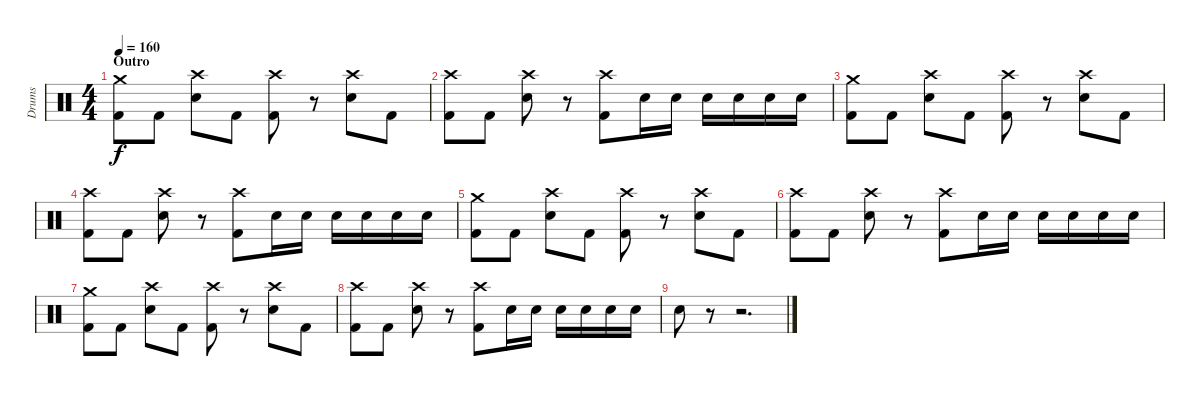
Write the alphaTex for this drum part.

\track ("Drums" "Drums") {instrument percussion}
\staff {score}
\articulation defaults
\ts (4 4)
\section ("" "Outro")
\tempo 160
\clef neutral
\ks c
("Crash medium (hit)" "Kick (hit) 2").8{dy f} "Kick (hit) 2".8 ("Crash high (hit)" "Electric Snare (hit)").8 "Kick (hit) 2".8 ("Crash high (hit)" "Kick (hit) 2").8 r.8 ("Crash high (hit)" "Electric Snare (hit)").8 "Kick (hit) 2".8 |
("Crash high (hit)" "Kick (hit) 2").8 "Kick (hit) 2".8 ("Crash high (hit)" "Electric Snare (hit)").8 r.8 ("Crash high (hit)" "Kick (hit) 2").8 "Electric Snare (hit)".16 "Electric Snare (hit)".16 "Electric Snare (hit)".16 "Electric Snare (hit)".16 "Electric Snare (hit)".16 "Electric Snare (hit)".16 |
("Crash medium (hit)" "Kick (hit) 2").8 "Kick (hit) 2".8 ("Crash high (hit)" "Electric Snare (hit)").8 "Kick (hit) 2".8 ("Crash high (hit)" "Kick (hit) 2").8 r.8 ("Crash high (hit)" "Electric Snare (hit)").8 "Kick (hit) 2".8 |
("Crash high (hit)" "Kick (hit) 2").8 "Kick (hit) 2".8 ("Crash high (hit)" "Electric Snare (hit)").8 r.8 ("Crash high (hit)" "Kick (hit) 2").8 "Electric Snare (hit)".16 "Electric Snare (hit)".16 "Electric Snare (hit)".16 "Electric Snare (hit)".16 "Electric Snare (hit)".16 "Electric Snare (hit)".16 |
("Crash medium (hit)" "Kick (hit) 2").8 "Kick (hit) 2".8 ("Crash high (hit)" "Electric Snare (hit)").8 "Kick (hit) 2".8 ("Crash high (hit)" "Kick (hit) 2").8 r.8 ("Crash high (hit)" "Electric Snare (hit)").8 "Kick (hit) 2".8 |
("Crash high (hit)" "Kick (hit) 2").8 "Kick (hit) 2".8 ("Crash high (hit)" "Electric Snare (hit)").8 r.8 ("Crash high (hit)" "Kick (hit) 2").8 "Electric Snare (hit)".16 "Electric Snare (hit)".16 "Electric Snare (hit)".16 "Electric Snare (hit)".16 "Electric Snare (hit)".16 "Electric Snare (hit)".16 |
("Crash medium (hit)" "Kick (hit) 2").8 "Kick (hit) 2".8 ("Crash high (hit)" "Electric Snare (hit)").8 "Kick (hit) 2".8 ("Crash high (hit)" "Kick (hit) 2").8 r.8 ("Crash high (hit)" "Electric Snare (hit)").8 "Kick (hit) 2".8 |
("Crash high (hit)" "Kick (hit) 2").8 "Kick (hit) 2".8 ("Crash high (hit)" "Electric Snare (hit)").8 r.8 ("Crash high (hit)" "Kick (hit) 2").8 "Electric Snare (hit)".16 "Electric Snare (hit)".16 "Electric Snare (hit)".16 "Electric Snare (hit)".16 "Electric Snare (hit)".16 "Electric Snare (hit)".16 |
"Electric Snare (hit)".8 r.8 r.2{d}
